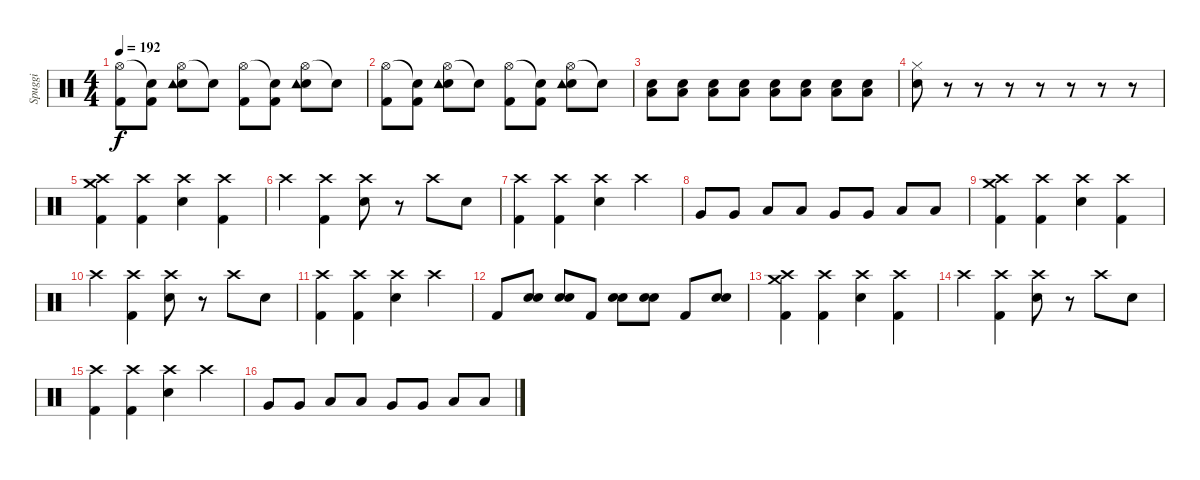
\track ("Spuggi" "Spuggi") {instrument percussion}
\staff {score}
\articulation defaults
\ts (4 4)
\tempo 192
\clef neutral
\ks c
("Hi-Hat (open)" "Kick (hit) 2").8{dy f} ("Snare (hit)"{t} "Kick (hit) 2").8 ("Hi-Hat (open)" "Electric Snare (hit)" "Tambourine (hit)").8 "Snare (hit)"{t}.8 ("Hi-Hat (open)" "Kick (hit) 2").8 ("Snare (hit)"{t} "Kick (hit) 2").8 ("Hi-Hat (open)" "Electric Snare (hit)" "Tambourine (hit)").8 "Snare (hit)"{t}.8 |
("Hi-Hat (open)" "Kick (hit) 2").8 ("Snare (hit)"{t} "Kick (hit) 2").8 ("Hi-Hat (open)" "Electric Snare (hit)" "Tambourine (hit)").8 "Snare (hit)"{t}.8 ("Hi-Hat (open)" "Kick (hit) 2").8 ("Snare (hit)"{t} "Kick (hit) 2").8 ("Hi-Hat (open)" "Electric Snare (hit)" "Tambourine (hit)").8 "Snare (hit)"{t}.8 |
("Low Tom (hit)" "Snare (hit) 2").8 ("Low Tom (hit)" "Snare (hit) 2").8 ("Low Tom (hit)" "Snare (hit) 2").8 ("Low Tom (hit)" "Snare (hit) 2").8 ("Low Tom (hit)" "Snare (hit) 2").8 ("Low Tom (hit)" "Snare (hit) 2").8 ("Low Tom (hit)" "Snare (hit) 2").8 ("Low Tom (hit)" "Snare (hit) 2").8 |
("Hi-Hat (closed)" "Snare (hit) 2").8 r.8 r.8 r.8 r.8 r.8 r.8 r.8 |
("Crash high (hit)" "Crash medium (hit)" "Kick (hit) 2").4 ("Crash high (hit)" "Kick (hit) 2").4 ("Crash high (hit)" "Snare (hit) 2").4 ("Crash high (hit)" "Kick (hit) 2").4 |
"Crash high (hit)".4 ("Crash high (hit)" "Kick (hit) 2").4 ("Crash high (hit)" "Snare (hit) 2").8 r.8 "Crash high (hit)".8 "Snare (hit) 2".8 |
("Crash high (hit)" "Kick (hit) 2").4 ("Crash high (hit)" "Kick (hit) 2").4 ("Crash high (hit)" "Snare (hit) 2").4 "Crash high (hit)".4 |
"Very Low Tom (hit)".8 "Very Low Tom (hit)".8 "Low Tom (hit)".8 "Low Tom (hit)".8 "Very Low Tom (hit)".8 "Very Low Tom (hit)".8 "Low Floor Tom (hit)".8 "Low Floor Tom (hit)".8 |
("Crash high (hit)" "Crash medium (hit)" "Kick (hit) 2").4 ("Crash high (hit)" "Kick (hit) 2").4 ("Crash high (hit)" "Snare (hit) 2").4 ("Crash high (hit)" "Kick (hit) 2").4 |
"Crash high (hit)".4 ("Crash high (hit)" "Kick (hit) 2").4 ("Crash high (hit)" "Snare (hit) 2").8 r.8 "Crash high (hit)".8 "Snare (hit) 2".8 |
("Crash high (hit)" "Kick (hit) 2").4 ("Crash high (hit)" "Kick (hit) 2").4 ("Crash high (hit)" "Snare (hit) 2").4 "Crash high (hit)".4 |
"Kick (hit) 2".8 ("Snare (hit) 2" "Snare (hit) 2").8 ("Snare (hit) 2" "Snare (hit) 2").8 "Kick (hit) 2".8 ("Snare (hit) 2" "Snare (hit) 2").8 ("Snare (hit) 2" "Snare (hit) 2").8 "Kick (hit) 2".8 ("Snare (hit) 2" "Snare (hit) 2").8 |
("Crash high (hit)" "Crash medium (hit)" "Kick (hit) 2").4 ("Crash high (hit)" "Kick (hit) 2").4 ("Crash high (hit)" "Snare (hit) 2").4 ("Crash high (hit)" "Kick (hit) 2").4 |
"Crash high (hit)".4 ("Crash high (hit)" "Kick (hit) 2").4 ("Crash high (hit)" "Snare (hit) 2").8 r.8 "Crash high (hit)".8 "Snare (hit) 2".8 |
("Crash high (hit)" "Kick (hit) 2").4 ("Crash high (hit)" "Kick (hit) 2").4 ("Crash high (hit)" "Snare (hit) 2").4 "Crash high (hit)".4 |
"Very Low Tom (hit)".8 "Very Low Tom (hit)".8 "Low Tom (hit)".8 "Low Tom (hit)".8 "Very Low Tom (hit)".8 "Very Low Tom (hit)".8 "Low Floor Tom (hit)".8 "Low Floor Tom (hit)".8
